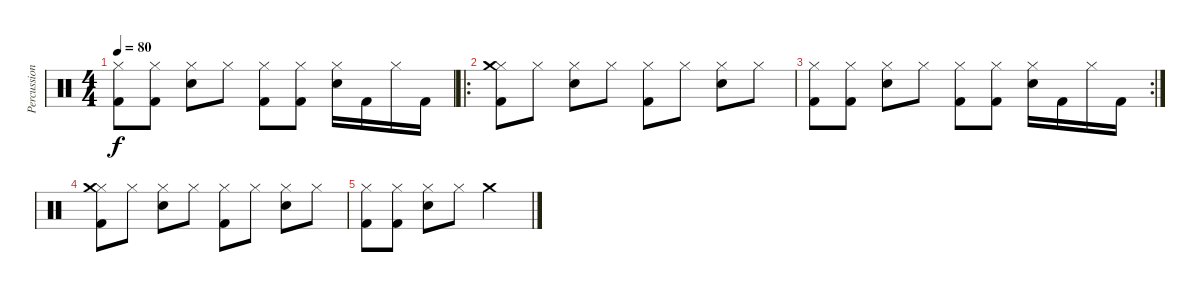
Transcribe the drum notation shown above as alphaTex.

\track ("Percussion" "Percussion") {instrument percussion}
\staff {score}
\articulation defaults
\ts (4 4)
\tempo 80
\clef neutral
\ks c
("Hi-Hat (closed)" "Kick (hit) 2").8{dy f} ("Hi-Hat (closed)" "Kick (hit) 2").8 ("Hi-Hat (closed)" "Electric Snare (hit)").8 "Hi-Hat (closed)".8 ("Hi-Hat (closed)" "Kick (hit) 2").8 ("Hi-Hat (closed)" "Kick (hit) 2").8 ("Hi-Hat (closed)" "Electric Snare (hit)").16 "Kick (hit) 2".16 "Hi-Hat (closed)".16 "Kick (hit) 2".16 |
\ro
("Hi-Hat (closed)" "Kick (hit) 2" "Crash medium (hit)").8 "Hi-Hat (closed)".8 ("Hi-Hat (closed)" "Electric Snare (hit)").8 "Hi-Hat (closed)".8 ("Hi-Hat (closed)" "Kick (hit) 2").8 "Hi-Hat (closed)".8 ("Hi-Hat (closed)" "Electric Snare (hit)").8 "Hi-Hat (closed)".8 |
\rc 2
("Hi-Hat (closed)" "Kick (hit) 2").8 ("Hi-Hat (closed)" "Kick (hit) 2").8 ("Hi-Hat (closed)" "Electric Snare (hit)").8 "Hi-Hat (closed)".8 ("Hi-Hat (closed)" "Kick (hit) 2").8 ("Hi-Hat (closed)" "Kick (hit) 2").8 ("Hi-Hat (closed)" "Electric Snare (hit)").16 "Kick (hit) 2".16 "Hi-Hat (closed)".16 "Kick (hit) 2".16 |
("Hi-Hat (closed)" "Kick (hit) 2" "Crash medium (hit)").8 "Hi-Hat (closed)".8 ("Hi-Hat (closed)" "Electric Snare (hit)").8 "Hi-Hat (closed)".8 ("Hi-Hat (closed)" "Kick (hit) 2").8 "Hi-Hat (closed)".8 ("Hi-Hat (closed)" "Electric Snare (hit)").8 "Hi-Hat (closed)".8 |
("Hi-Hat (closed)" "Kick (hit) 2").8 ("Hi-Hat (closed)" "Kick (hit) 2").8 ("Hi-Hat (closed)" "Electric Snare (hit)").8 "Hi-Hat (closed)".8 "Crash medium (hit)".2
